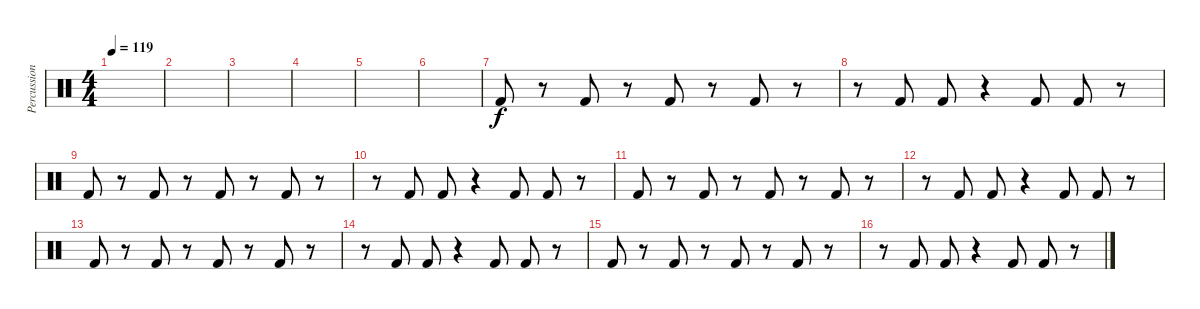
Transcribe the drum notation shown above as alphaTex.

\track ("Percussion" "Percussion") {instrument percussion}
\staff {score}
\articulation defaults
\ts (4 4)
\tempo 119
\clef neutral
\ks c
|
|
|
|
|
|
"Kick (hit) 2".8 r.8 "Kick (hit) 2".8 r.8 "Kick (hit) 2".8 r.8 "Kick (hit) 2".8 r.8 |
r.8 "Kick (hit) 2".8 "Kick (hit) 2".8 r.4 "Kick (hit) 2".8 "Kick (hit) 2".8 r.8 |
"Kick (hit) 2".8 r.8 "Kick (hit) 2".8 r.8 "Kick (hit) 2".8 r.8 "Kick (hit) 2".8 r.8 |
r.8 "Kick (hit) 2".8 "Kick (hit) 2".8 r.4 "Kick (hit) 2".8 "Kick (hit) 2".8 r.8 |
"Kick (hit) 2".8 r.8 "Kick (hit) 2".8 r.8 "Kick (hit) 2".8 r.8 "Kick (hit) 2".8 r.8 |
r.8 "Kick (hit) 2".8 "Kick (hit) 2".8 r.4 "Kick (hit) 2".8 "Kick (hit) 2".8 r.8 |
"Kick (hit) 2".8 r.8 "Kick (hit) 2".8 r.8 "Kick (hit) 2".8 r.8 "Kick (hit) 2".8 r.8 |
r.8 "Kick (hit) 2".8 "Kick (hit) 2".8 r.4 "Kick (hit) 2".8 "Kick (hit) 2".8 r.8 |
"Kick (hit) 2".8 r.8 "Kick (hit) 2".8 r.8 "Kick (hit) 2".8 r.8 "Kick (hit) 2".8 r.8 |
r.8 "Kick (hit) 2".8 "Kick (hit) 2".8 r.4 "Kick (hit) 2".8 "Kick (hit) 2".8 r.8
